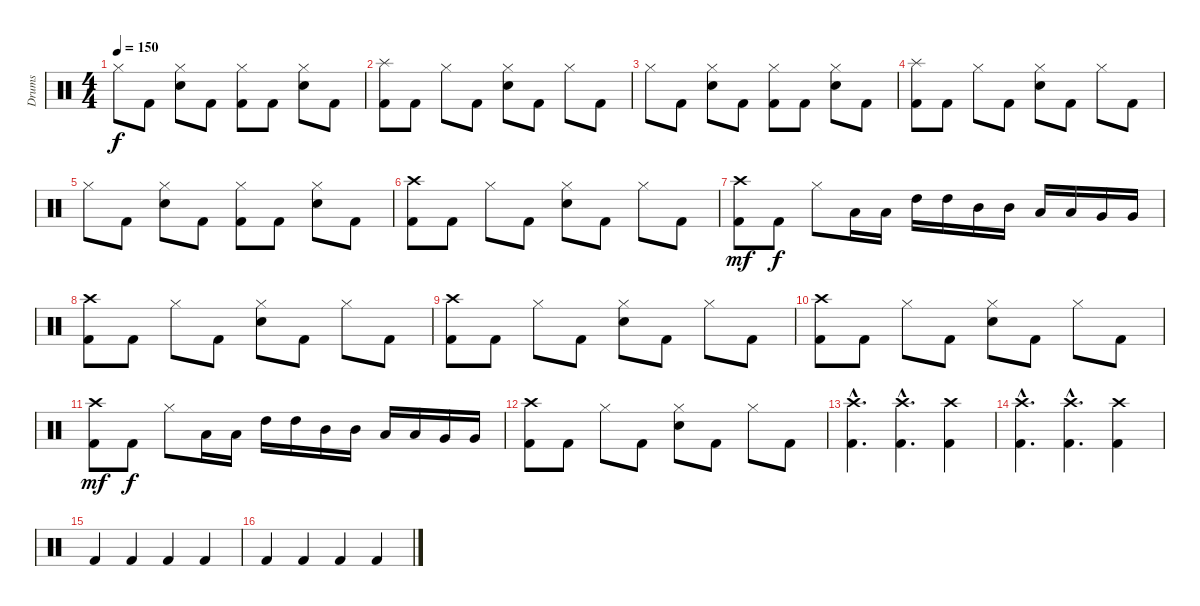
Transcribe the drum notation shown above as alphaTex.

\track ("Drums" "Drums") {instrument percussion}
\staff {score}
\articulation defaults
\ts (4 4)
\tempo 150
\clef neutral
\ks c "Hi-Hat (closed)".8{dy f} "Kick (hit) 2".8
("Hi-Hat (closed)" "Snare (hit) 2").8 "Kick (hit) 2".8 ("Hi-Hat (closed)" "Kick (hit) 2").8 "Kick (hit) 2".8 ("Snare (hit) 2" "Hi-Hat (closed)").8 "Kick (hit) 2".8 |
("Splash (hit)" "Kick (hit) 2").8 "Kick (hit) 2".8 "Hi-Hat (closed)".8 "Kick (hit) 2".8 ("Hi-Hat (closed)" "Snare (hit) 2").8 "Kick (hit) 2".8 "Hi-Hat (closed)".8 "Kick (hit) 2".8 |
"Hi-Hat (closed)".8 "Kick (hit) 2".8 ("Hi-Hat (closed)" "Snare (hit) 2").8 "Kick (hit) 2".8 ("Hi-Hat (closed)" "Kick (hit) 2").8 "Kick (hit) 2".8 ("Hi-Hat (closed)" "Snare (hit) 2").8 "Kick (hit) 2".8 |
("Kick (hit) 2" "Splash (hit)").8 "Kick (hit) 2".8 "Hi-Hat (closed)".8 "Kick (hit) 2".8 ("Hi-Hat (closed)" "Snare (hit) 2").8 "Kick (hit) 2".8 "Hi-Hat (closed)".8 "Kick (hit) 2".8 |
"Hi-Hat (closed)".8 "Kick (hit) 2".8 ("Hi-Hat (closed)" "Snare (hit) 2").8 "Kick (hit) 2".8 ("Hi-Hat (closed)" "Kick (hit) 2").8 "Kick (hit) 2".8 ("Hi-Hat (closed)" "Snare (hit) 2").8 "Kick (hit) 2".8 |
("Crash high (hit)" "Kick (hit) 2").8 "Kick (hit) 2".8 "Hi-Hat (closed)".8 "Kick (hit) 2".8 ("Hi-Hat (closed)" "Snare (hit) 2").8 "Kick (hit) 2".8 "Hi-Hat (closed)".8 "Kick (hit) 2".8 |
("Kick (hit) 2" "Crash high (hit)").8{dy mf} "Kick (hit) 2".8{dy f} "Hi-Hat (closed)".8 "Low Tom (hit)".16 "Low Tom (hit)".16 "High Tom (hit)".16 "High Tom (hit)".16 "Mid Tom (hit)".16 "Mid Tom (hit)".16 "Low Tom (hit)".16 "Low Tom (hit)".16 "Very Low Tom (hit)".16 "Very Low Tom (hit)".16 |
("Kick (hit) 2" "Crash high (hit)").8 "Kick (hit) 2".8 "Hi-Hat (closed)".8 "Kick (hit) 2".8 ("Hi-Hat (closed)" "Snare (hit) 2").8 "Kick (hit) 2".8 "Hi-Hat (closed)".8 "Kick (hit) 2".8 |
("Crash high (hit)" "Kick (hit) 2").8 "Kick (hit) 2".8 "Hi-Hat (closed)".8 "Kick (hit) 2".8 ("Hi-Hat (closed)" "Snare (hit) 2").8 "Kick (hit) 2".8 "Hi-Hat (closed)".8 "Kick (hit) 2".8 |
("Kick (hit) 2" "Crash high (hit)").8 "Kick (hit) 2".8 "Hi-Hat (closed)".8 "Kick (hit) 2".8 ("Snare (hit) 2" "Hi-Hat (closed)").8 "Kick (hit) 2".8 "Hi-Hat (closed)".8 "Kick (hit) 2".8 |
("Crash high (hit)" "Kick (hit) 2").8{dy mf} "Kick (hit) 2".8{dy f} "Hi-Hat (closed)".8 "Low Tom (hit)".16 "Low Tom (hit)".16 "High Tom (hit)".16 "High Tom (hit)".16 "Mid Tom (hit)".16 "Mid Tom (hit)".16 "Low Tom (hit)".16 "Low Tom (hit)".16 "Very Low Tom (hit)".16 "Very Low Tom (hit)".16 |
("Kick (hit) 2" "Crash high (hit)").8 "Kick (hit) 2".8 "Hi-Hat (closed)".8 "Kick (hit) 2".8 ("Snare (hit) 2" "Hi-Hat (closed)").8 "Kick (hit) 2".8 "Hi-Hat (closed)".8 "Kick (hit) 2".8 |
("Crash high (hit)"{hac} "Kick (hit) 2"{hac}).4{d} ("Crash high (hit)"{hac} "Kick (hit) 2"{hac}).4{d} ("Crash high (hit)" "Kick (hit) 2").4 |
("Crash high (hit)"{hac} "Kick (hit) 2"{hac}).4{d} ("Kick (hit) 2"{hac} "Crash high (hit)"{hac}).4{d} ("Crash high (hit)" "Kick (hit) 2").4 |
"Kick (hit) 2".4 "Kick (hit) 2".4 "Kick (hit) 2".4 "Kick (hit) 2".4 |
"Kick (hit) 2".4 "Kick (hit) 2".4 "Kick (hit) 2".4 "Kick (hit) 2".4
